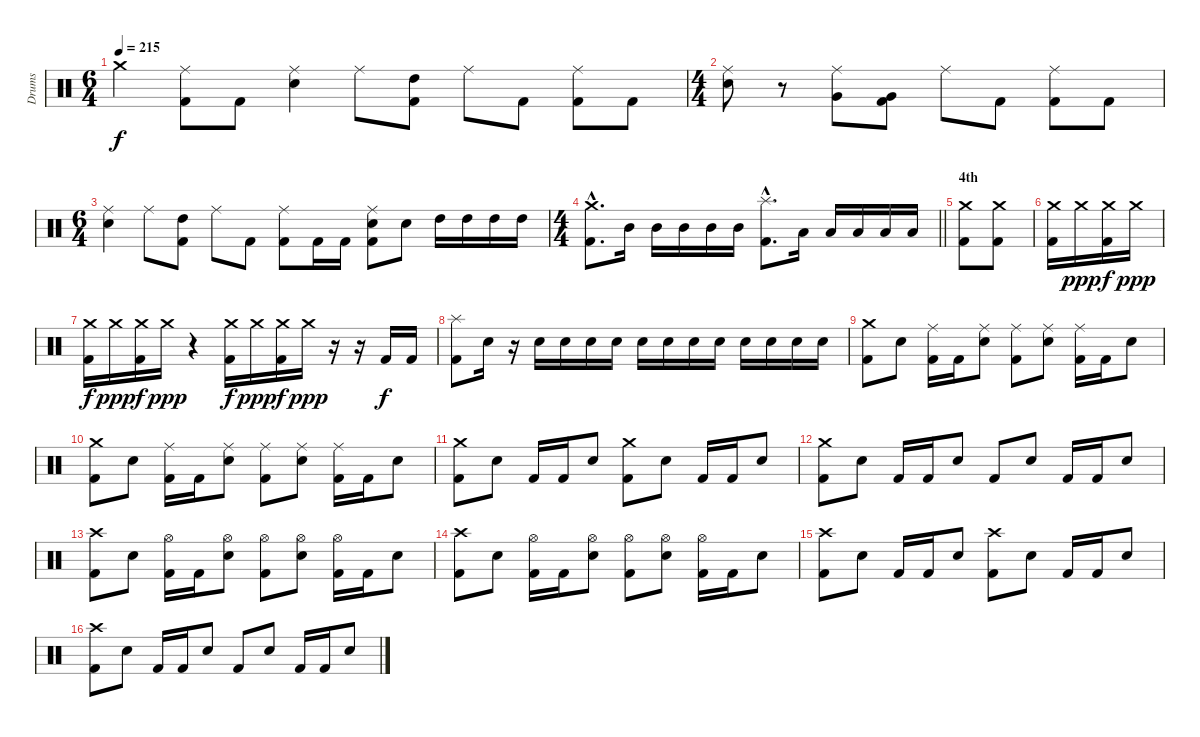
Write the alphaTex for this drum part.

\track ("Drums" "Drums") {instrument percussion}
\staff {score}
\articulation defaults
\ts (6 4)
\tempo 215
\clef neutral
\ks c "Crash medium (hit)".4{dy f}
("Ride (middle)" "Kick (hit) 2").8 "Kick (hit) 2".8 ("Ride (middle)" "Snare (hit) 2").4 "Ride (middle)".8 ("High Tom (hit)" "Kick (hit) 2").8 "Ride (middle)".8 "Kick (hit) 2".8 ("Ride (middle)" "Kick (hit) 2").8 "Kick (hit) 2".8 |
\ts (4 4)
("Ride (middle)" "Snare (hit) 2").8 r.8 ("Ride (middle)" "Very Low Tom (hit)").8 ("Very Low Tom (hit)" "Kick (hit) 2").8 "Ride (middle)".8 "Kick (hit) 2".8 ("Ride (middle)" "Kick (hit) 2").8 "Kick (hit) 2".8 |
\ts (6 4)
("Ride (middle)" "Snare (hit) 2").4 "Ride (middle)".8 ("High Tom (hit)" "Kick (hit) 2").8 "Ride (middle)".8 "Kick (hit) 2".8 ("Ride (middle)" "Kick (hit) 2").8 "Kick (hit) 2".16 "Kick (hit) 2".16 ("Ride (middle)" "Snare (hit) 2" "Kick (hit) 2").8 "Snare (hit) 2".8 "High Tom (hit)".16 "High Tom (hit)".16 "High Tom (hit)".16 "High Tom (hit)".16 |
\ts (4 4)
\barLineRight lightlight
("Crash medium (hit)"{hac} "Kick (hit) 2"{hac}).8{d} "Mid Tom (hit)".16 "Mid Tom (hit)".16 "Mid Tom (hit)".16 "Mid Tom (hit)".16 "Mid Tom (hit)".16 ("Splash (hit)"{hac} "Kick (hit) 2"{hac}).8{d} "Low Tom (hit)".16 "Low Tom (hit)".16 "Low Tom (hit)".16 "Low Tom (hit)".16 "Low Tom (hit)".16 |
\section ("" "4th")
("Crash medium (hit)" "Kick (hit) 2").8 ("Crash medium (hit)" "Kick (hit) 2").8 |
("Crash medium (hit)" "Kick (hit) 2").16 "Crash medium (hit)".16{dy ppp} ("Crash medium (hit)" "Kick (hit) 2").16{dy f} "Crash medium (hit)".16{dy ppp} |
("Crash medium (hit)" "Kick (hit) 2").16{dy f} "Crash medium (hit)".16{dy ppp} ("Crash medium (hit)" "Kick (hit) 2").16{dy f} "Crash medium (hit)".16{dy ppp} r.4 ("Crash medium (hit)" "Kick (hit) 2").16{dy f} "Crash medium (hit)".16{dy ppp} ("Crash medium (hit)" "Kick (hit) 2").16{dy f} "Crash medium (hit)".16{dy ppp} r.16 r.16 "Kick (hit) 2".16{dy f} "Kick (hit) 2".16 |
("Splash (hit)" "Kick (hit) 2").8 "Snare (hit) 2".16 r.16 "Snare (hit) 2".16 "Snare (hit) 2".16 "Snare (hit) 2".16 "Snare (hit) 2".16 "Snare (hit) 2".16 "Snare (hit) 2".16 "Snare (hit) 2".16 "Snare (hit) 2".16 "Snare (hit) 2".16 "Snare (hit) 2".16 "Snare (hit) 2".16 "Snare (hit) 2".16 |
("Crash medium (hit)" "Kick (hit) 2").8 "Snare (hit) 2".8 ("Ride (middle)" "Kick (hit) 2").16 "Kick (hit) 2".16 ("Ride (middle)" "Snare (hit) 2").8 ("Ride (middle)" "Kick (hit) 2").8 ("Ride (middle)" "Snare (hit) 2").8 ("Ride (middle)" "Kick (hit) 2").16 "Kick (hit) 2".16 "Snare (hit) 2".8 |
("Crash medium (hit)" "Kick (hit) 2").8 "Snare (hit) 2".8 ("Ride (middle)" "Kick (hit) 2").16 "Kick (hit) 2".16 ("Ride (middle)" "Snare (hit) 2").8 ("Ride (middle)" "Kick (hit) 2").8 ("Ride (middle)" "Snare (hit) 2").8 ("Ride (middle)" "Kick (hit) 2").16 "Kick (hit) 2".16 "Snare (hit) 2".8 |
("Crash medium (hit)" "Kick (hit) 2").8 "Snare (hit) 2".8 "Kick (hit) 2".16 "Kick (hit) 2".16 "Snare (hit) 2".8 ("Crash medium (hit)" "Kick (hit) 2").8 "Snare (hit) 2".8 "Kick (hit) 2".16 "Kick (hit) 2".16 "Snare (hit) 2".8 |
("Crash medium (hit)" "Kick (hit) 2").8 "Snare (hit) 2".8 "Kick (hit) 2".16 "Kick (hit) 2".16 "Snare (hit) 2".8 "Kick (hit) 2".8 "Snare (hit) 2".8 "Kick (hit) 2".16 "Kick (hit) 2".16 "Snare (hit) 2".8 |
("Crash high (hit)" "Kick (hit) 2").8 "Snare (hit) 2".8 ("Hi-Hat (open)" "Kick (hit) 2").16 "Kick (hit) 2".16 ("Hi-Hat (open)" "Snare (hit) 2").8 ("Hi-Hat (open)" "Kick (hit) 2").8 ("Hi-Hat (open)" "Snare (hit) 2").8 ("Hi-Hat (open)" "Kick (hit) 2").16 "Kick (hit) 2".16 "Snare (hit) 2".8 |
("Crash high (hit)" "Kick (hit) 2").8 "Snare (hit) 2".8 ("Hi-Hat (open)" "Kick (hit) 2").16 "Kick (hit) 2".16 ("Hi-Hat (open)" "Snare (hit) 2").8 ("Hi-Hat (open)" "Kick (hit) 2").8 ("Hi-Hat (open)" "Snare (hit) 2").8 ("Hi-Hat (open)" "Kick (hit) 2").16 "Kick (hit) 2".16 "Snare (hit) 2".8 |
("Crash high (hit)" "Kick (hit) 2").8 "Snare (hit) 2".8 "Kick (hit) 2".16 "Kick (hit) 2".16 "Snare (hit) 2".8 ("Crash high (hit)" "Kick (hit) 2").8 "Snare (hit) 2".8 "Kick (hit) 2".16 "Kick (hit) 2".16 "Snare (hit) 2".8 |
("Crash high (hit)" "Kick (hit) 2").8 "Snare (hit) 2".8 "Kick (hit) 2".16 "Kick (hit) 2".16 "Snare (hit) 2".8 "Kick (hit) 2".8 "Snare (hit) 2".8 "Kick (hit) 2".16 "Kick (hit) 2".16 "Snare (hit) 2".8
